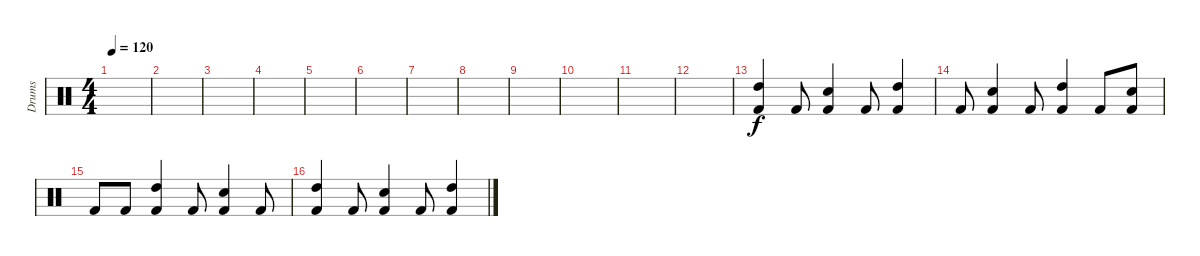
\track ("Drums" "Drums") {instrument percussion}
\staff {score}
\articulation defaults
\ts (4 4)
\tempo 120
\clef neutral
\ks c
|
|
|
|
|
|
|
|
|
|
|
|
("High Tom (hit)" "Kick (hit) 2").4 "Kick (hit) 2".8 ("Snare (hit) 2" "Kick (hit) 2").4 "Kick (hit) 2".8 ("High Tom (hit)" "Kick (hit) 2").4 |
"Kick (hit) 2".8 ("Snare (hit) 2" "Kick (hit) 2").4 "Kick (hit) 2".8 ("High Tom (hit)" "Kick (hit) 2").4 "Kick (hit) 2".8 ("Snare (hit) 2" "Kick (hit) 2").8 |
"Kick (hit) 2".8 "Kick (hit) 2".8 ("High Tom (hit)" "Kick (hit) 2").4 "Kick (hit) 2".8 ("Snare (hit) 2" "Kick (hit) 2").4 "Kick (hit) 2".8 |
("High Tom (hit)" "Kick (hit) 2").4 "Kick (hit) 2".8 ("Snare (hit) 2" "Kick (hit) 2").4 "Kick (hit) 2".8 ("High Tom (hit)" "Kick (hit) 2").4
